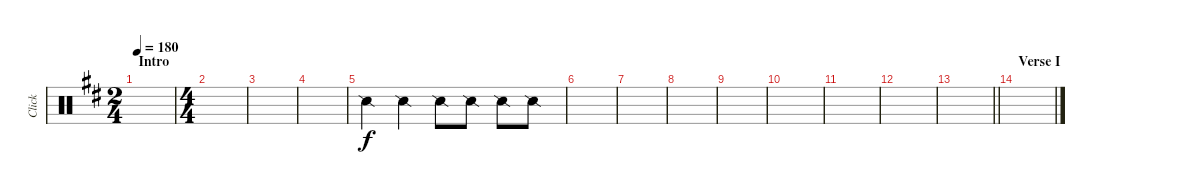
\track ("Click" "Click") {instrument percussion}
\staff {score}
\articulation defaults
\ts (2 4)
\section ("" "Intro")
\tempo 180
\clef neutral
\ks d
|
\ts (4 4)
|
|
|
"Snare (side stick) 2".4 "Snare (side stick) 2".4 "Snare (side stick) 2".8 "Snare (side stick) 2".8 "Snare (side stick) 2".8 "Snare (side stick) 2".8 |
|
|
|
|
|
|
|
\barLineRight lightlight
|
\section ("" "Verse I")
